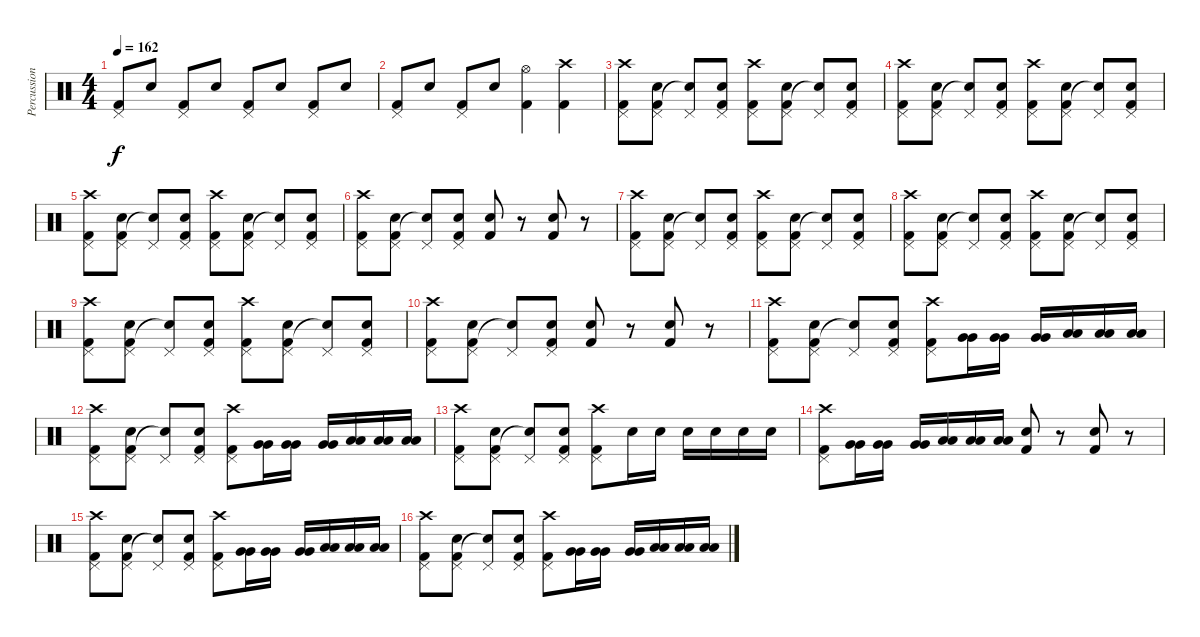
\track ("Percussions" "Percussion") {instrument percussion}
\staff {score}
\articulation defaults
\ts (4 4)
\tempo 162
\clef neutral
\ks c
("Kick (hit) 2" "Pedal Hi-Hat (hit)").8{dy f} "Electric Snare (hit)".8 ("Kick (hit) 2" "Pedal Hi-Hat (hit)").8 "Electric Snare (hit)".8 ("Kick (hit) 2" "Pedal Hi-Hat (hit)").8 "Electric Snare (hit)".8 ("Kick (hit) 2" "Pedal Hi-Hat (hit)").8 "Electric Snare (hit)".8 |
("Kick (hit) 2" "Pedal Hi-Hat (hit)").8 "Electric Snare (hit)".8 ("Kick (hit) 2" "Pedal Hi-Hat (hit)").8 "Electric Snare (hit)".8 ("Kick (hit) 2" "Hi-Hat (open)").4 ("Kick (hit) 2" "Crash high (hit)").4 |
("Kick (hit) 2" "Crash high (hit)" "Pedal Hi-Hat (hit)").8 ("Kick (hit) 2" "Electric Snare (hit)" "Pedal Hi-Hat (hit)").8 ("Snare (hit)"{t} "Pedal Hi-Hat (hit)").8 ("Kick (hit) 2" "Electric Snare (hit)" "Pedal Hi-Hat (hit)").8 ("Kick (hit) 2" "Crash high (hit)" "Pedal Hi-Hat (hit)").8 ("Kick (hit) 2" "Electric Snare (hit)" "Pedal Hi-Hat (hit)").8 ("Snare (hit)"{t} "Pedal Hi-Hat (hit)").8 ("Kick (hit) 2" "Electric Snare (hit)" "Pedal Hi-Hat (hit)").8 |
("Kick (hit) 2" "Crash high (hit)" "Pedal Hi-Hat (hit)").8 ("Kick (hit) 2" "Electric Snare (hit)" "Pedal Hi-Hat (hit)").8 ("Snare (hit)"{t} "Pedal Hi-Hat (hit)").8 ("Kick (hit) 2" "Electric Snare (hit)" "Pedal Hi-Hat (hit)").8 ("Kick (hit) 2" "Crash high (hit)" "Pedal Hi-Hat (hit)").8 ("Kick (hit) 2" "Electric Snare (hit)" "Pedal Hi-Hat (hit)").8 ("Snare (hit)"{t} "Pedal Hi-Hat (hit)").8 ("Kick (hit) 2" "Electric Snare (hit)" "Pedal Hi-Hat (hit)").8 |
("Kick (hit) 2" "Crash high (hit)" "Pedal Hi-Hat (hit)").8 ("Kick (hit) 2" "Electric Snare (hit)" "Pedal Hi-Hat (hit)").8 ("Snare (hit)"{t} "Pedal Hi-Hat (hit)").8 ("Kick (hit) 2" "Electric Snare (hit)" "Pedal Hi-Hat (hit)").8 ("Kick (hit) 2" "Crash high (hit)" "Pedal Hi-Hat (hit)").8 ("Kick (hit) 2" "Electric Snare (hit)" "Pedal Hi-Hat (hit)").8 ("Snare (hit)"{t} "Pedal Hi-Hat (hit)").8 ("Kick (hit) 2" "Electric Snare (hit)" "Pedal Hi-Hat (hit)").8 |
("Kick (hit) 2" "Crash high (hit)" "Pedal Hi-Hat (hit)").8 ("Kick (hit) 2" "Electric Snare (hit)" "Pedal Hi-Hat (hit)").8 ("Snare (hit)"{t} "Pedal Hi-Hat (hit)").8 ("Kick (hit) 2" "Electric Snare (hit)" "Pedal Hi-Hat (hit)").8 ("Kick (hit) 2" "Electric Snare (hit)").8 r.8 ("Kick (hit) 2" "Electric Snare (hit)").8 r.8 |
("Kick (hit) 2" "Crash high (hit)" "Pedal Hi-Hat (hit)").8 ("Kick (hit) 2" "Electric Snare (hit)" "Pedal Hi-Hat (hit)").8 ("Snare (hit)"{t} "Pedal Hi-Hat (hit)").8 ("Kick (hit) 2" "Electric Snare (hit)" "Pedal Hi-Hat (hit)").8 ("Kick (hit) 2" "Crash high (hit)" "Pedal Hi-Hat (hit)").8 ("Kick (hit) 2" "Electric Snare (hit)" "Pedal Hi-Hat (hit)").8 ("Snare (hit)"{t} "Pedal Hi-Hat (hit)").8 ("Kick (hit) 2" "Electric Snare (hit)" "Pedal Hi-Hat (hit)").8 |
("Kick (hit) 2" "Crash high (hit)" "Pedal Hi-Hat (hit)").8 ("Kick (hit) 2" "Electric Snare (hit)" "Pedal Hi-Hat (hit)").8 ("Snare (hit)"{t} "Pedal Hi-Hat (hit)").8 ("Kick (hit) 2" "Electric Snare (hit)" "Pedal Hi-Hat (hit)").8 ("Kick (hit) 2" "Crash high (hit)" "Pedal Hi-Hat (hit)").8 ("Kick (hit) 2" "Electric Snare (hit)" "Pedal Hi-Hat (hit)").8 ("Snare (hit)"{t} "Pedal Hi-Hat (hit)").8 ("Kick (hit) 2" "Electric Snare (hit)" "Pedal Hi-Hat (hit)").8 |
("Kick (hit) 2" "Crash high (hit)" "Pedal Hi-Hat (hit)").8 ("Kick (hit) 2" "Electric Snare (hit)" "Pedal Hi-Hat (hit)").8 ("Snare (hit)"{t} "Pedal Hi-Hat (hit)").8 ("Kick (hit) 2" "Electric Snare (hit)" "Pedal Hi-Hat (hit)").8 ("Kick (hit) 2" "Crash high (hit)" "Pedal Hi-Hat (hit)").8 ("Kick (hit) 2" "Electric Snare (hit)" "Pedal Hi-Hat (hit)").8 ("Snare (hit)"{t} "Pedal Hi-Hat (hit)").8 ("Kick (hit) 2" "Electric Snare (hit)" "Pedal Hi-Hat (hit)").8 |
("Kick (hit) 2" "Crash high (hit)" "Pedal Hi-Hat (hit)").8 ("Kick (hit) 2" "Electric Snare (hit)" "Pedal Hi-Hat (hit)").8 ("Snare (hit)"{t} "Pedal Hi-Hat (hit)").8 ("Kick (hit) 2" "Electric Snare (hit)" "Pedal Hi-Hat (hit)").8 ("Kick (hit) 2" "Electric Snare (hit)").8 r.8 ("Kick (hit) 2" "Electric Snare (hit)").8 r.8 |
("Kick (hit) 2" "Crash high (hit)" "Pedal Hi-Hat (hit)").8 ("Kick (hit) 2" "Electric Snare (hit)" "Pedal Hi-Hat (hit)").8 ("Snare (hit)"{t} "Pedal Hi-Hat (hit)").8 ("Kick (hit) 2" "Electric Snare (hit)" "Pedal Hi-Hat (hit)").8 ("Kick (hit) 2" "Crash high (hit)" "Pedal Hi-Hat (hit)").8 ("Very Low Tom (hit)" "Very Low Tom (hit)").16 ("Very Low Tom (hit)" "Very Low Tom (hit)").16 ("Very Low Tom (hit)" "Very Low Tom (hit)").16 ("Low Floor Tom (hit)" "Low Floor Tom (hit)").16 ("Low Floor Tom (hit)" "Low Floor Tom (hit)").16 ("Low Floor Tom (hit)" "Low Floor Tom (hit)").16 |
("Kick (hit) 2" "Crash high (hit)" "Pedal Hi-Hat (hit)").8 ("Kick (hit) 2" "Electric Snare (hit)" "Pedal Hi-Hat (hit)").8 ("Snare (hit)"{t} "Pedal Hi-Hat (hit)").8 ("Kick (hit) 2" "Electric Snare (hit)" "Pedal Hi-Hat (hit)").8 ("Kick (hit) 2" "Crash high (hit)" "Pedal Hi-Hat (hit)").8 ("Very Low Tom (hit)" "Very Low Tom (hit)").16 ("Very Low Tom (hit)" "Very Low Tom (hit)").16 ("Very Low Tom (hit)" "Very Low Tom (hit)").16 ("Low Floor Tom (hit)" "Low Floor Tom (hit)").16 ("Low Floor Tom (hit)" "Low Floor Tom (hit)").16 ("Low Floor Tom (hit)" "Low Floor Tom (hit)").16 |
("Kick (hit) 2" "Crash high (hit)" "Pedal Hi-Hat (hit)").8 ("Kick (hit) 2" "Electric Snare (hit)" "Pedal Hi-Hat (hit)").8 ("Snare (hit)"{t} "Pedal Hi-Hat (hit)").8 ("Kick (hit) 2" "Electric Snare (hit)" "Pedal Hi-Hat (hit)").8 ("Kick (hit) 2" "Crash high (hit)" "Pedal Hi-Hat (hit)").8 "Electric Snare (hit)".16 "Electric Snare (hit)".16 "Electric Snare (hit)".16 "Electric Snare (hit)".16 "Electric Snare (hit)".16 "Electric Snare (hit)".16 |
("Kick (hit) 2" "Crash high (hit)" "Pedal Hi-Hat (hit)").8 ("Very Low Tom (hit)" "Very Low Tom (hit)").16 ("Very Low Tom (hit)" "Very Low Tom (hit)").16 ("Very Low Tom (hit)" "Very Low Tom (hit)").16 ("Low Floor Tom (hit)" "Low Floor Tom (hit)").16 ("Low Floor Tom (hit)" "Low Floor Tom (hit)").16 ("Low Floor Tom (hit)" "Low Floor Tom (hit)").16 ("Kick (hit) 2" "Electric Snare (hit)").8 r.8 ("Kick (hit) 2" "Electric Snare (hit)").8 r.8 |
("Kick (hit) 2" "Crash high (hit)" "Pedal Hi-Hat (hit)").8 ("Kick (hit) 2" "Electric Snare (hit)" "Pedal Hi-Hat (hit)").8 ("Snare (hit)"{t} "Pedal Hi-Hat (hit)").8 ("Kick (hit) 2" "Electric Snare (hit)" "Pedal Hi-Hat (hit)").8 ("Kick (hit) 2" "Crash high (hit)" "Pedal Hi-Hat (hit)").8 ("Very Low Tom (hit)" "Very Low Tom (hit)").16 ("Very Low Tom (hit)" "Very Low Tom (hit)").16 ("Very Low Tom (hit)" "Very Low Tom (hit)").16 ("Low Floor Tom (hit)" "Low Floor Tom (hit)").16 ("Low Floor Tom (hit)" "Low Floor Tom (hit)").16 ("Low Floor Tom (hit)" "Low Floor Tom (hit)").16 |
("Kick (hit) 2" "Crash high (hit)" "Pedal Hi-Hat (hit)").8 ("Kick (hit) 2" "Electric Snare (hit)" "Pedal Hi-Hat (hit)").8 ("Snare (hit)"{t} "Pedal Hi-Hat (hit)").8 ("Kick (hit) 2" "Electric Snare (hit)" "Pedal Hi-Hat (hit)").8 ("Kick (hit) 2" "Crash high (hit)" "Pedal Hi-Hat (hit)").8 ("Very Low Tom (hit)" "Very Low Tom (hit)").16 ("Very Low Tom (hit)" "Very Low Tom (hit)").16 ("Very Low Tom (hit)" "Very Low Tom (hit)").16 ("Low Floor Tom (hit)" "Low Floor Tom (hit)").16 ("Low Floor Tom (hit)" "Low Floor Tom (hit)").16 ("Low Floor Tom (hit)" "Low Floor Tom (hit)").16
